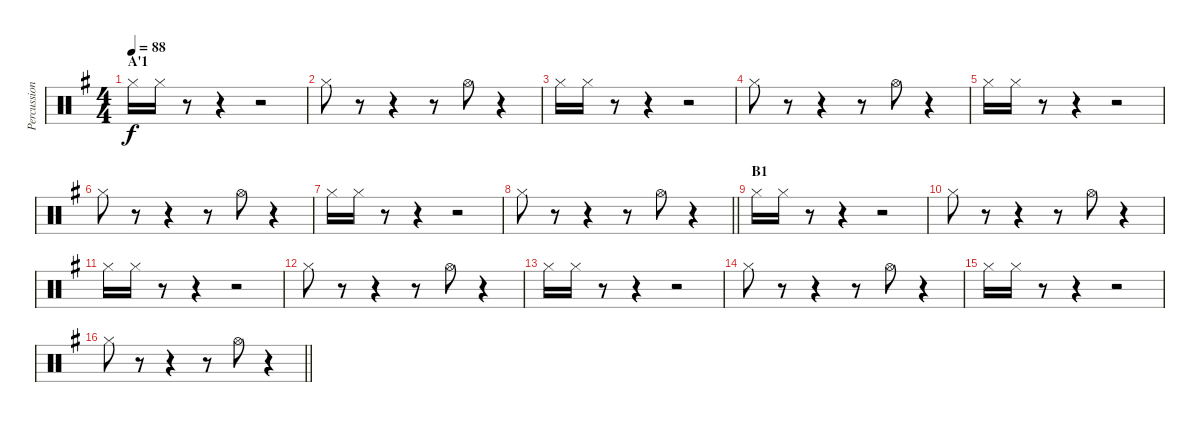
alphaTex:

\track ("Percussion" "Percussion") {instrument percussion}
\staff {score}
\articulation defaults
\ts (4 4)
\section ("" "A'1")
\tempo 88
\clef neutral
\ks g "Hi-Hat (closed)".16{dy f} "Hi-Hat (closed)".16
r.8 r.4 r.2 |
"Hi-Hat (closed)".8 r.8 r.4 r.8 "Hi-Hat (open)".8 r.4 |
"Hi-Hat (closed)".16 "Hi-Hat (closed)".16 r.8 r.4 r.2 |
"Hi-Hat (closed)".8 r.8 r.4 r.8 "Hi-Hat (open)".8 r.4 |
"Hi-Hat (closed)".16 "Hi-Hat (closed)".16 r.8 r.4 r.2 |
"Hi-Hat (closed)".8 r.8 r.4 r.8 "Hi-Hat (open)".8 r.4 |
"Hi-Hat (closed)".16 "Hi-Hat (closed)".16 r.8 r.4 r.2 |
\barLineRight lightlight "Hi-Hat (closed)".8
r.8 r.4 r.8 "Hi-Hat (open)".8 r.4 |
\section ("" "B1")
"Hi-Hat (closed)".16 "Hi-Hat (closed)".16 r.8 r.4 r.2 |
"Hi-Hat (closed)".8 r.8 r.4 r.8 "Hi-Hat (open)".8 r.4 |
"Hi-Hat (closed)".16 "Hi-Hat (closed)".16 r.8 r.4 r.2 |
"Hi-Hat (closed)".8 r.8 r.4 r.8 "Hi-Hat (open)".8 r.4 |
"Hi-Hat (closed)".16 "Hi-Hat (closed)".16 r.8 r.4 r.2 |
"Hi-Hat (closed)".8 r.8 r.4 r.8 "Hi-Hat (open)".8 r.4 |
"Hi-Hat (closed)".16 "Hi-Hat (closed)".16 r.8 r.4 r.2 |
\barLineRight lightlight "Hi-Hat (closed)".8
r.8 r.4 r.8 "Hi-Hat (open)".8 r.4
